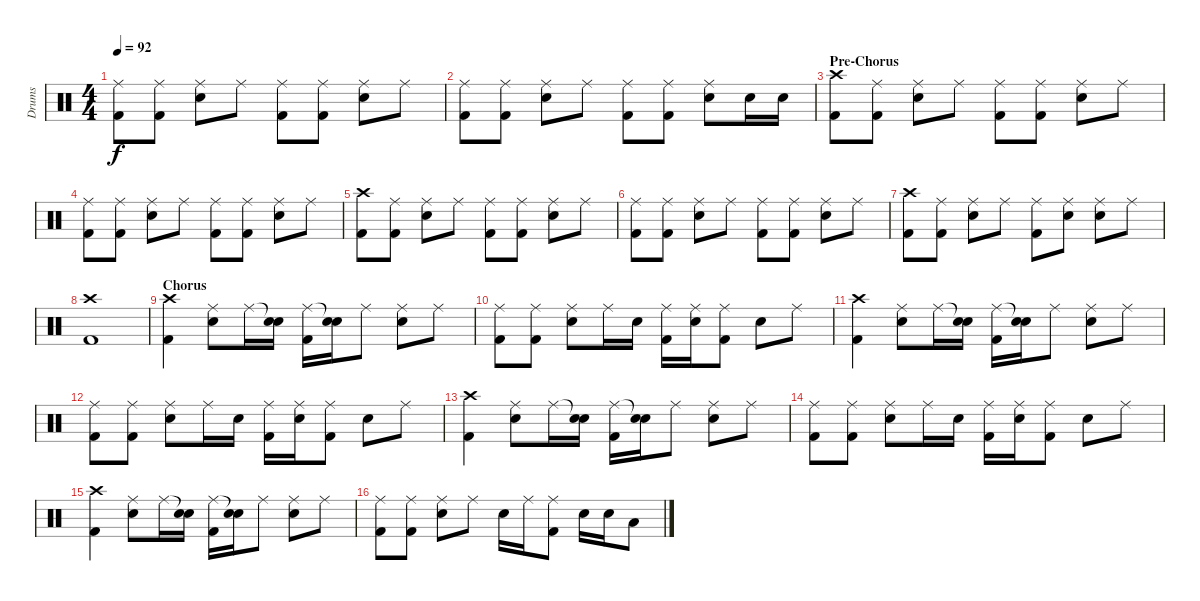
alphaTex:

\track ("Drums" "Drums") {instrument percussion}
\staff {score}
\articulation defaults
\ts (4 4)
\tempo 92
\clef neutral
\ks c
("Ride (middle)" "Kick (hit) 2").8{dy f} ("Ride (middle)" "Kick (hit) 2").8 ("Ride (middle)" "Snare (hit) 2").8 "Ride (middle)".8 ("Ride (middle)" "Kick (hit) 2").8 ("Ride (middle)" "Kick (hit) 2").8 ("Ride (middle)" "Snare (hit) 2").8 "Ride (middle)".8 |
("Ride (middle)" "Kick (hit) 2").8 ("Ride (middle)" "Kick (hit) 2").8 ("Ride (middle)" "Snare (hit) 2").8 "Ride (middle)".8 ("Ride (middle)" "Kick (hit) 2").8 ("Ride (middle)" "Kick (hit) 2").8 ("Ride (middle)" "Snare (hit) 2").8 "Snare (hit) 2".16 "Snare (hit) 2".16 |
\section ("" "Pre-Chorus")
("Crash high (hit)" "Kick (hit) 2").8 ("Ride (middle)" "Kick (hit) 2").8 ("Ride (middle)" "Snare (hit) 2").8 "Ride (middle)".8 ("Ride (middle)" "Kick (hit) 2").8 ("Ride (middle)" "Kick (hit) 2").8 ("Ride (middle)" "Snare (hit) 2").8 "Ride (middle)".8 |
("Ride (middle)" "Kick (hit) 2").8 ("Ride (middle)" "Kick (hit) 2").8 ("Ride (middle)" "Snare (hit) 2").8 "Ride (middle)".8 ("Ride (middle)" "Kick (hit) 2").8 ("Ride (middle)" "Kick (hit) 2").8 ("Ride (middle)" "Snare (hit) 2").8 "Ride (middle)".8 |
("Crash high (hit)" "Kick (hit) 2").8 ("Ride (middle)" "Kick (hit) 2").8 ("Ride (middle)" "Snare (hit) 2").8 "Ride (middle)".8 ("Ride (middle)" "Kick (hit) 2").8 ("Ride (middle)" "Kick (hit) 2").8 ("Ride (middle)" "Snare (hit) 2").8 "Ride (middle)".8 |
("Ride (middle)" "Kick (hit) 2").8 ("Ride (middle)" "Kick (hit) 2").8 ("Ride (middle)" "Snare (hit) 2").8 "Ride (middle)".8 ("Ride (middle)" "Kick (hit) 2").8 ("Ride (middle)" "Kick (hit) 2").8 ("Ride (middle)" "Snare (hit) 2").8 "Ride (middle)".8 |
("Crash high (hit)" "Kick (hit) 2").8 ("Ride (middle)" "Kick (hit) 2").8 ("Ride (middle)" "Snare (hit) 2").8 "Ride (middle)".8 ("Ride (middle)" "Kick (hit) 2").8 ("Ride (middle)" "Snare (hit) 2").8 ("Ride (middle)" "Snare (hit) 2").8 "Ride (middle)".8 |
("Crash high (hit)" "Kick (hit) 2").1 |
\section ("" "Chorus")
("Crash high (hit)" "Kick (hit) 2").4 ("Ride (middle)" "Snare (hit) 2").8 "Ride (middle)".16 ("Snare (hit)"{t} "Snare (hit) 2").16 ("Ride (middle)" "Kick (hit) 2").16 ("Snare (hit)"{t} "Snare (hit) 2").16 "Ride (middle)".8 ("Ride (middle)" "Snare (hit) 2").8 "Ride (middle)".8 |
("Ride (middle)" "Kick (hit) 2").8 ("Ride (middle)" "Kick (hit) 2").8 ("Ride (middle)" "Snare (hit) 2").8 "Ride (middle)".16 "Snare (hit) 2".16 ("Ride (middle)" "Kick (hit) 2").16 ("Ride (middle)" "Snare (hit) 2").16 ("Ride (middle)" "Kick (hit) 2").8 "Snare (hit) 2".8 "Ride (middle)".8 |
("Crash high (hit)" "Kick (hit) 2").4 ("Ride (middle)" "Snare (hit) 2").8 "Ride (middle)".16 ("Snare (hit)"{t} "Snare (hit) 2").16 ("Ride (middle)" "Kick (hit) 2").16 ("Snare (hit)"{t} "Snare (hit) 2").16 "Ride (middle)".8 ("Ride (middle)" "Snare (hit) 2").8 "Ride (middle)".8 |
("Ride (middle)" "Kick (hit) 2").8 ("Ride (middle)" "Kick (hit) 2").8 ("Ride (middle)" "Snare (hit) 2").8 "Ride (middle)".16 "Snare (hit) 2".16 ("Ride (middle)" "Kick (hit) 2").16 ("Ride (middle)" "Snare (hit) 2").16 ("Ride (middle)" "Kick (hit) 2").8 "Snare (hit) 2".8 "Ride (middle)".8 |
("Crash high (hit)" "Kick (hit) 2").4 ("Ride (middle)" "Snare (hit) 2").8 "Ride (middle)".16 ("Snare (hit)"{t} "Snare (hit) 2").16 ("Ride (middle)" "Kick (hit) 2").16 ("Snare (hit)"{t} "Snare (hit) 2").16 "Ride (middle)".8 ("Ride (middle)" "Snare (hit) 2").8 "Ride (middle)".8 |
("Ride (middle)" "Kick (hit) 2").8 ("Ride (middle)" "Kick (hit) 2").8 ("Ride (middle)" "Snare (hit) 2").8 "Ride (middle)".16 "Snare (hit) 2".16 ("Ride (middle)" "Kick (hit) 2").16 ("Ride (middle)" "Snare (hit) 2").16 ("Ride (middle)" "Kick (hit) 2").8 "Snare (hit) 2".8 "Ride (middle)".8 |
("Crash high (hit)" "Kick (hit) 2").4 ("Ride (middle)" "Snare (hit) 2").8 "Ride (middle)".16 ("Snare (hit)"{t} "Snare (hit) 2").16 ("Ride (middle)" "Kick (hit) 2").16 ("Snare (hit)"{t} "Snare (hit) 2").16 "Ride (middle)".8 ("Ride (middle)" "Snare (hit) 2").8 "Ride (middle)".8 |
("Ride (middle)" "Kick (hit) 2").8 ("Ride (middle)" "Kick (hit) 2").8 ("Ride (middle)" "Snare (hit) 2").8 "Ride (middle)".8 "Snare (hit) 2".16 "Ride (middle)".16 ("Ride (middle)" "Kick (hit) 2").8 "Snare (hit) 2".16 "Snare (hit) 2".16 "Low Floor Tom (hit)".8
